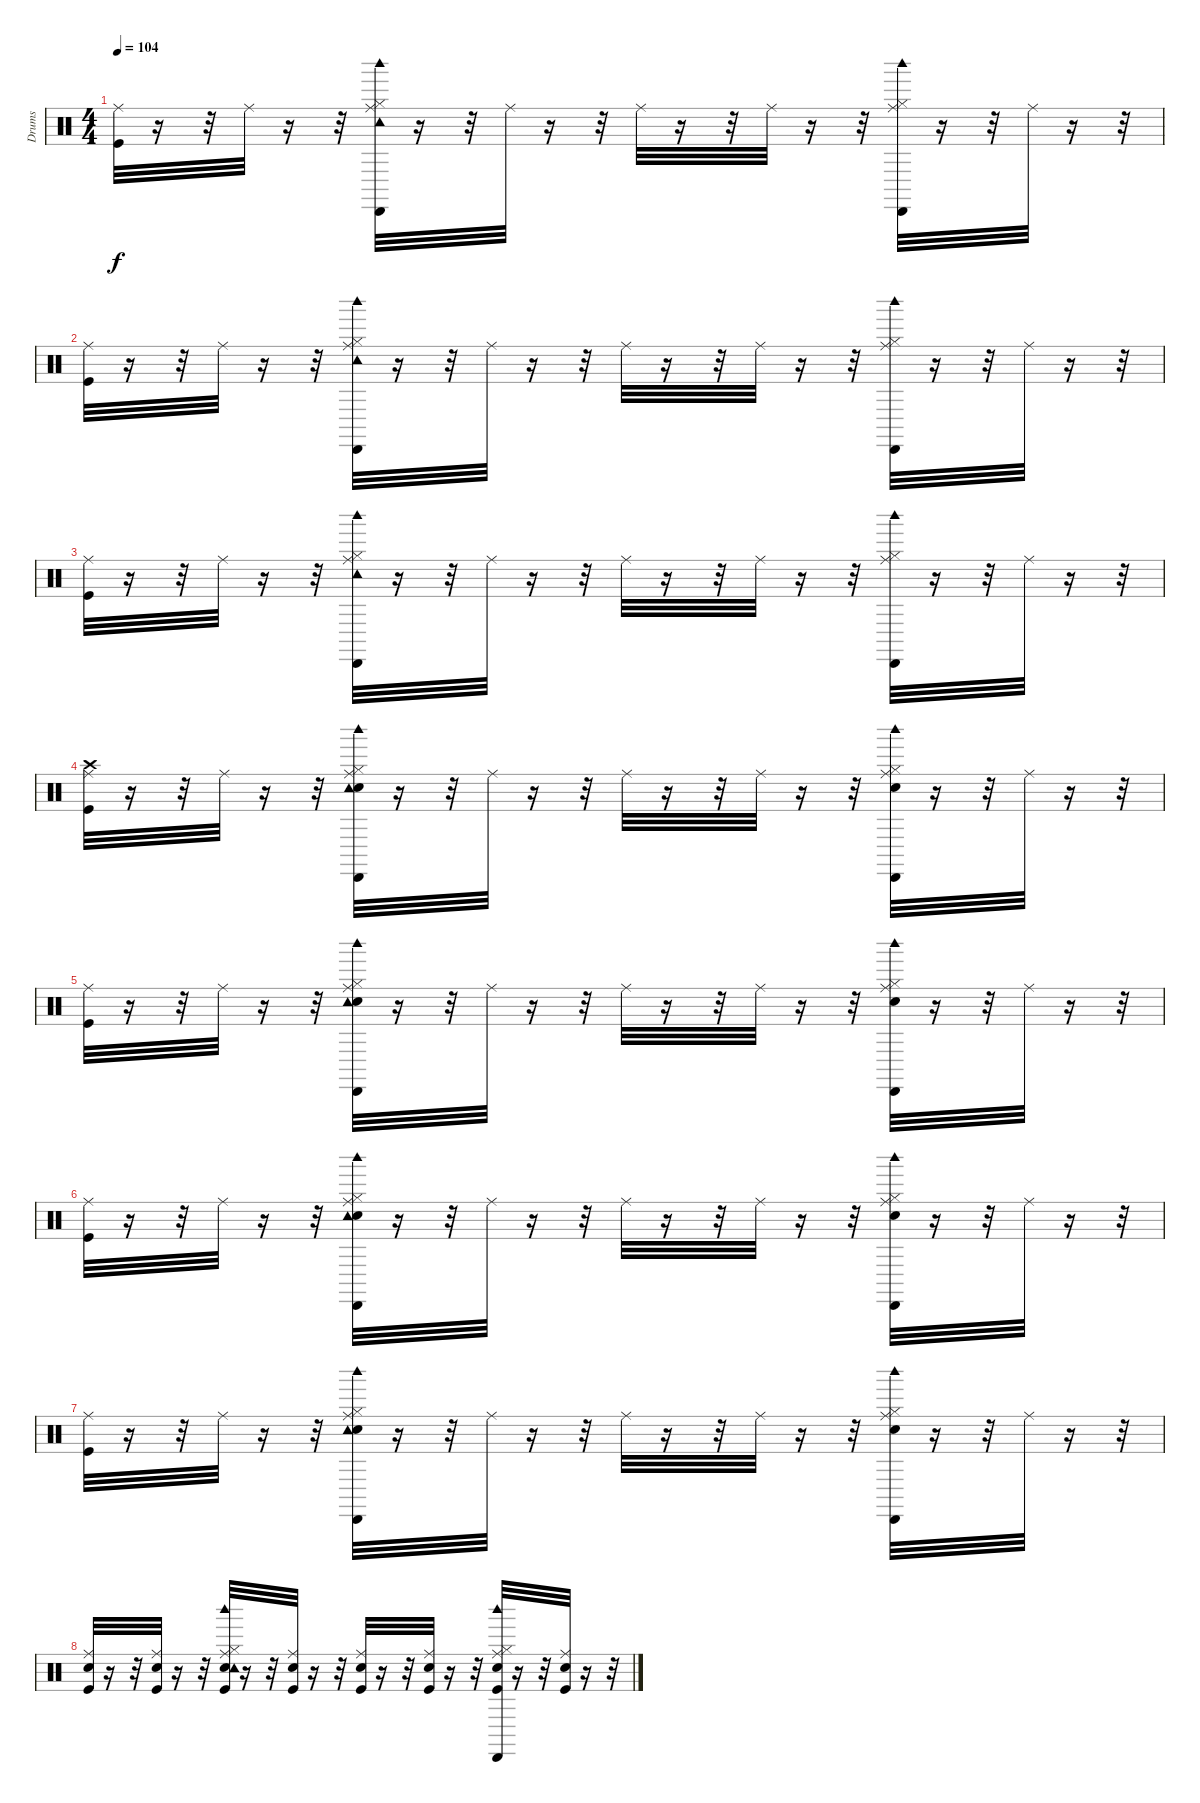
\track ("Drums" "Drums") {instrument percussion}
\staff {score}
\articulation defaults
\ts (4 4)
\tempo 104
\clef neutral
\ks c
("Kick (hit)" "Ride (middle)").32{dy f} r.16 r.32 "Ride (middle)".32 r.16 r.32 ("Hi-Hat (closed)" "Ride (middle)" "Tambourine (hit)" "Cabasa (hit)" "Woodblock high (hit)").32 r.16 r.32 "Ride (middle)".32 r.16 r.32 "Ride (middle)".32 r.16 r.32 "Ride (middle)".32 r.16 r.32 ("Hi-Hat (closed)" "Ride (middle)" "Cabasa (hit)" "Woodblock high (hit)").32 r.16 r.32 "Ride (middle)".32 r.16 r.32 |
("Kick (hit)" "Ride (middle)").32 r.16 r.32 "Ride (middle)".32 r.16 r.32 ("Hi-Hat (closed)" "Ride (middle)" "Tambourine (hit)" "Cabasa (hit)" "Woodblock high (hit)").32 r.16 r.32 "Ride (middle)".32 r.16 r.32 "Ride (middle)".32 r.16 r.32 "Ride (middle)".32 r.16 r.32 ("Hi-Hat (closed)" "Ride (middle)" "Cabasa (hit)" "Woodblock high (hit)").32 r.16 r.32 "Ride (middle)".32 r.16 r.32 |
("Kick (hit)" "Ride (middle)").32 r.16 r.32 "Ride (middle)".32 r.16 r.32 ("Hi-Hat (closed)" "Ride (middle)" "Tambourine (hit)" "Cabasa (hit)" "Woodblock high (hit)").32 r.16 r.32 "Ride (middle)".32 r.16 r.32 "Ride (middle)".32 r.16 r.32 "Ride (middle)".32 r.16 r.32 ("Hi-Hat (closed)" "Ride (middle)" "Cabasa (hit)" "Woodblock high (hit)").32 r.16 r.32 "Ride (middle)".32 r.16 r.32 |
("Kick (hit)" "Crash high (hit)" "Ride (middle)").32 r.16 r.32 "Ride (middle)".32 r.16 r.32 ("Snare (hit) 2" "Hi-Hat (closed)" "Ride (middle)" "Tambourine (hit)" "Cabasa (hit)" "Woodblock high (hit)").32 r.16 r.32 "Ride (middle)".32 r.16 r.32 "Ride (middle)".32 r.16 r.32 "Ride (middle)".32 r.16 r.32 ("Snare (hit) 2" "Hi-Hat (closed)" "Ride (middle)" "Cabasa (hit)" "Woodblock high (hit)").32 r.16 r.32 "Ride (middle)".32 r.16 r.32 |
("Kick (hit)" "Ride (middle)").32 r.16 r.32 "Ride (middle)".32 r.16 r.32 ("Snare (hit) 2" "Hi-Hat (closed)" "Ride (middle)" "Tambourine (hit)" "Cabasa (hit)" "Woodblock high (hit)").32 r.16 r.32 "Ride (middle)".32 r.16 r.32 "Ride (middle)".32 r.16 r.32 "Ride (middle)".32 r.16 r.32 ("Snare (hit) 2" "Hi-Hat (closed)" "Ride (middle)" "Cabasa (hit)" "Woodblock high (hit)").32 r.16 r.32 "Ride (middle)".32 r.16 r.32 |
("Kick (hit)" "Ride (middle)").32 r.16 r.32 "Ride (middle)".32 r.16 r.32 ("Snare (hit) 2" "Hi-Hat (closed)" "Ride (middle)" "Tambourine (hit)" "Cabasa (hit)" "Woodblock high (hit)").32 r.16 r.32 "Ride (middle)".32 r.16 r.32 "Ride (middle)".32 r.16 r.32 "Ride (middle)".32 r.16 r.32 ("Snare (hit) 2" "Hi-Hat (closed)" "Ride (middle)" "Cabasa (hit)" "Woodblock high (hit)").32 r.16 r.32 "Ride (middle)".32 r.16 r.32 |
("Kick (hit)" "Ride (middle)").32 r.16 r.32 "Ride (middle)".32 r.16 r.32 ("Snare (hit) 2" "Hi-Hat (closed)" "Ride (middle)" "Tambourine (hit)" "Cabasa (hit)" "Woodblock high (hit)").32 r.16 r.32 "Ride (middle)".32 r.16 r.32 "Ride (middle)".32 r.16 r.32 "Ride (middle)".32 r.16 r.32 ("Snare (hit) 2" "Hi-Hat (closed)" "Ride (middle)" "Cabasa (hit)" "Woodblock high (hit)").32 r.16 r.32 "Ride (middle)".32 r.16 r.32 |
("Kick (hit)" "Snare (hit) 2" "Ride (middle)").32 r.16 r.32 ("Kick (hit)" "Snare (hit) 2" "Ride (middle)").32 r.16 r.32 ("Kick (hit)" "Snare (hit) 2" "Hi-Hat (closed)" "Ride (middle)" "Tambourine (hit)" "Woodblock high (hit)").32 r.16 r.32 ("Kick (hit)" "Snare (hit) 2" "Ride (middle)").32 r.16 r.32 ("Kick (hit)" "Snare (hit) 2" "Ride (middle)").32 r.16 r.32 ("Kick (hit)" "Snare (hit) 2" "Ride (middle)").32 r.16 r.32 ("Kick (hit)" "Snare (hit) 2" "Hi-Hat (closed)" "Ride (middle)" "Cabasa (hit)" "Woodblock high (hit)").32 r.16 r.32 ("Kick (hit)" "Snare (hit) 2" "Ride (middle)").32 r.16 r.32
